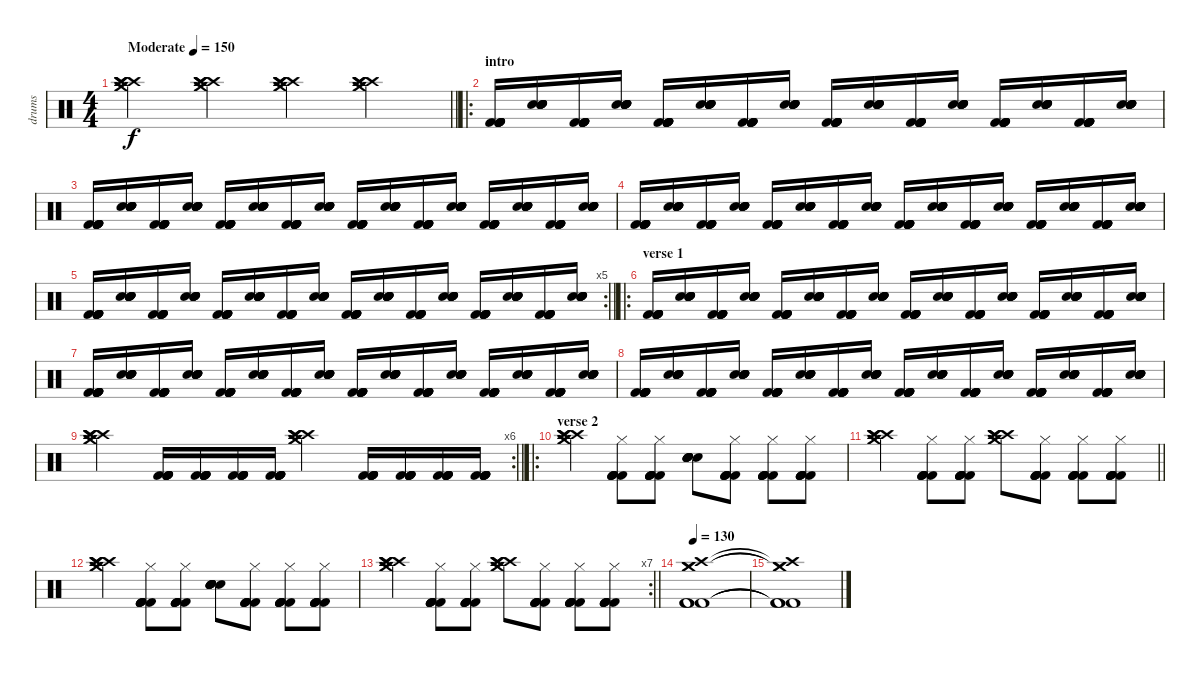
\track ("drums" "drums") {instrument percussion}
\staff {score}
\articulation defaults
\ts (4 4)
\tempo (150 "Moderate")
\clef neutral
\barLineRight lightlight
\ks c
("Crash medium (hit)" "Crash medium (hit)" "Crash high (hit)" "Crash high (hit)" "Crash high (hit)" "Crash high (hit)").4{dy f} ("Crash medium (hit)" "Crash medium (hit)" "Crash high (hit)" "Crash high (hit)" "Crash high (hit)" "Crash high (hit)").4 ("Crash medium (hit)" "Crash medium (hit)" "Crash high (hit)" "Crash high (hit)" "Crash high (hit)" "Crash high (hit)").4 ("Crash medium (hit)" "Crash medium (hit)" "Crash high (hit)" "Crash high (hit)" "Crash high (hit)" "Crash high (hit)").4 |
\ro
\section ("" "intro")
("Kick (hit) 2" "Kick (hit) 2" "Kick (hit) 2" "Kick (hit) 2" "Kick (hit) 2" "Kick (hit) 2").16 ("Snare (hit) 2" "Snare (hit) 2" "Snare (hit) 2" "Snare (hit) 2" "Snare (hit) 2" "Snare (hit) 2").16 ("Kick (hit) 2" "Kick (hit) 2" "Kick (hit) 2" "Kick (hit) 2" "Kick (hit) 2" "Kick (hit) 2").16 ("Snare (hit) 2" "Snare (hit) 2" "Snare (hit) 2" "Snare (hit) 2" "Snare (hit) 2" "Snare (hit) 2").16 ("Kick (hit) 2" "Kick (hit) 2" "Kick (hit) 2" "Kick (hit) 2" "Kick (hit) 2" "Kick (hit) 2").16 ("Snare (hit) 2" "Snare (hit) 2" "Snare (hit) 2" "Snare (hit) 2" "Snare (hit) 2" "Snare (hit) 2").16 ("Kick (hit) 2" "Kick (hit) 2" "Kick (hit) 2" "Kick (hit) 2" "Kick (hit) 2" "Kick (hit) 2").16 ("Snare (hit) 2" "Snare (hit) 2" "Snare (hit) 2" "Snare (hit) 2" "Snare (hit) 2" "Snare (hit) 2").16 ("Kick (hit) 2" "Kick (hit) 2" "Kick (hit) 2" "Kick (hit) 2" "Kick (hit) 2" "Kick (hit) 2").16 ("Snare (hit) 2" "Snare (hit) 2" "Snare (hit) 2" "Snare (hit) 2" "Snare (hit) 2" "Snare (hit) 2").16 ("Kick (hit) 2" "Kick (hit) 2" "Kick (hit) 2" "Kick (hit) 2" "Kick (hit) 2" "Kick (hit) 2").16 ("Snare (hit) 2" "Snare (hit) 2" "Snare (hit) 2" "Snare (hit) 2" "Snare (hit) 2" "Snare (hit) 2").16 ("Kick (hit) 2" "Kick (hit) 2" "Kick (hit) 2" "Kick (hit) 2" "Kick (hit) 2" "Kick (hit) 2").16 ("Snare (hit) 2" "Snare (hit) 2" "Snare (hit) 2" "Snare (hit) 2" "Snare (hit) 2" "Snare (hit) 2").16 ("Kick (hit) 2" "Kick (hit) 2" "Kick (hit) 2" "Kick (hit) 2" "Kick (hit) 2" "Kick (hit) 2").16 ("Snare (hit) 2" "Snare (hit) 2" "Snare (hit) 2" "Snare (hit) 2" "Snare (hit) 2" "Snare (hit) 2").16 |
("Kick (hit) 2" "Kick (hit) 2" "Kick (hit) 2" "Kick (hit) 2" "Kick (hit) 2" "Kick (hit) 2").16 ("Snare (hit) 2" "Snare (hit) 2" "Snare (hit) 2" "Snare (hit) 2" "Snare (hit) 2" "Snare (hit) 2").16 ("Kick (hit) 2" "Kick (hit) 2" "Kick (hit) 2" "Kick (hit) 2" "Kick (hit) 2" "Kick (hit) 2").16 ("Snare (hit) 2" "Snare (hit) 2" "Snare (hit) 2" "Snare (hit) 2" "Snare (hit) 2" "Snare (hit) 2").16 ("Kick (hit) 2" "Kick (hit) 2" "Kick (hit) 2" "Kick (hit) 2" "Kick (hit) 2" "Kick (hit) 2").16 ("Snare (hit) 2" "Snare (hit) 2" "Snare (hit) 2" "Snare (hit) 2" "Snare (hit) 2" "Snare (hit) 2").16 ("Kick (hit) 2" "Kick (hit) 2" "Kick (hit) 2" "Kick (hit) 2" "Kick (hit) 2" "Kick (hit) 2").16 ("Snare (hit) 2" "Snare (hit) 2" "Snare (hit) 2" "Snare (hit) 2" "Snare (hit) 2" "Snare (hit) 2").16 ("Kick (hit) 2" "Kick (hit) 2" "Kick (hit) 2" "Kick (hit) 2" "Kick (hit) 2" "Kick (hit) 2").16 ("Snare (hit) 2" "Snare (hit) 2" "Snare (hit) 2" "Snare (hit) 2" "Snare (hit) 2" "Snare (hit) 2").16 ("Kick (hit) 2" "Kick (hit) 2" "Kick (hit) 2" "Kick (hit) 2" "Kick (hit) 2" "Kick (hit) 2").16 ("Snare (hit) 2" "Snare (hit) 2" "Snare (hit) 2" "Snare (hit) 2" "Snare (hit) 2" "Snare (hit) 2").16 ("Kick (hit) 2" "Kick (hit) 2" "Kick (hit) 2" "Kick (hit) 2" "Kick (hit) 2" "Kick (hit) 2").16 ("Snare (hit) 2" "Snare (hit) 2" "Snare (hit) 2" "Snare (hit) 2" "Snare (hit) 2" "Snare (hit) 2").16 ("Kick (hit) 2" "Kick (hit) 2" "Kick (hit) 2" "Kick (hit) 2" "Kick (hit) 2" "Kick (hit) 2").16 ("Snare (hit) 2" "Snare (hit) 2" "Snare (hit) 2" "Snare (hit) 2" "Snare (hit) 2" "Snare (hit) 2").16 |
("Kick (hit) 2" "Kick (hit) 2" "Kick (hit) 2" "Kick (hit) 2" "Kick (hit) 2" "Kick (hit) 2").16 ("Snare (hit) 2" "Snare (hit) 2" "Snare (hit) 2" "Snare (hit) 2" "Snare (hit) 2" "Snare (hit) 2").16 ("Kick (hit) 2" "Kick (hit) 2" "Kick (hit) 2" "Kick (hit) 2" "Kick (hit) 2" "Kick (hit) 2").16 ("Snare (hit) 2" "Snare (hit) 2" "Snare (hit) 2" "Snare (hit) 2" "Snare (hit) 2" "Snare (hit) 2").16 ("Kick (hit) 2" "Kick (hit) 2" "Kick (hit) 2" "Kick (hit) 2" "Kick (hit) 2" "Kick (hit) 2").16 ("Snare (hit) 2" "Snare (hit) 2" "Snare (hit) 2" "Snare (hit) 2" "Snare (hit) 2" "Snare (hit) 2").16 ("Kick (hit) 2" "Kick (hit) 2" "Kick (hit) 2" "Kick (hit) 2" "Kick (hit) 2" "Kick (hit) 2").16 ("Snare (hit) 2" "Snare (hit) 2" "Snare (hit) 2" "Snare (hit) 2" "Snare (hit) 2" "Snare (hit) 2").16 ("Kick (hit) 2" "Kick (hit) 2" "Kick (hit) 2" "Kick (hit) 2" "Kick (hit) 2" "Kick (hit) 2").16 ("Snare (hit) 2" "Snare (hit) 2" "Snare (hit) 2" "Snare (hit) 2" "Snare (hit) 2" "Snare (hit) 2").16 ("Kick (hit) 2" "Kick (hit) 2" "Kick (hit) 2" "Kick (hit) 2" "Kick (hit) 2" "Kick (hit) 2").16 ("Snare (hit) 2" "Snare (hit) 2" "Snare (hit) 2" "Snare (hit) 2" "Snare (hit) 2" "Snare (hit) 2").16 ("Kick (hit) 2" "Kick (hit) 2" "Kick (hit) 2" "Kick (hit) 2" "Kick (hit) 2" "Kick (hit) 2").16 ("Snare (hit) 2" "Snare (hit) 2" "Snare (hit) 2" "Snare (hit) 2" "Snare (hit) 2" "Snare (hit) 2").16 ("Kick (hit) 2" "Kick (hit) 2" "Kick (hit) 2" "Kick (hit) 2" "Kick (hit) 2" "Kick (hit) 2").16 ("Snare (hit) 2" "Snare (hit) 2" "Snare (hit) 2" "Snare (hit) 2" "Snare (hit) 2" "Snare (hit) 2").16 |
\rc 5
\barLineRight lightlight
("Kick (hit) 2" "Kick (hit) 2" "Kick (hit) 2" "Kick (hit) 2" "Kick (hit) 2" "Kick (hit) 2").16 ("Snare (hit) 2" "Snare (hit) 2" "Snare (hit) 2" "Snare (hit) 2" "Snare (hit) 2" "Snare (hit) 2").16 ("Kick (hit) 2" "Kick (hit) 2" "Kick (hit) 2" "Kick (hit) 2" "Kick (hit) 2" "Kick (hit) 2").16 ("Snare (hit) 2" "Snare (hit) 2" "Snare (hit) 2" "Snare (hit) 2" "Snare (hit) 2" "Snare (hit) 2").16 ("Kick (hit) 2" "Kick (hit) 2" "Kick (hit) 2" "Kick (hit) 2" "Kick (hit) 2" "Kick (hit) 2").16 ("Snare (hit) 2" "Snare (hit) 2" "Snare (hit) 2" "Snare (hit) 2" "Snare (hit) 2" "Snare (hit) 2").16 ("Kick (hit) 2" "Kick (hit) 2" "Kick (hit) 2" "Kick (hit) 2" "Kick (hit) 2" "Kick (hit) 2").16 ("Snare (hit) 2" "Snare (hit) 2" "Snare (hit) 2" "Snare (hit) 2" "Snare (hit) 2" "Snare (hit) 2").16 ("Kick (hit) 2" "Kick (hit) 2" "Kick (hit) 2" "Kick (hit) 2" "Kick (hit) 2" "Kick (hit) 2").16 ("Snare (hit) 2" "Snare (hit) 2" "Snare (hit) 2" "Snare (hit) 2" "Snare (hit) 2" "Snare (hit) 2").16 ("Kick (hit) 2" "Kick (hit) 2" "Kick (hit) 2" "Kick (hit) 2" "Kick (hit) 2" "Kick (hit) 2").16 ("Snare (hit) 2" "Snare (hit) 2" "Snare (hit) 2" "Snare (hit) 2" "Snare (hit) 2" "Snare (hit) 2").16 ("Kick (hit) 2" "Kick (hit) 2" "Kick (hit) 2" "Kick (hit) 2" "Kick (hit) 2" "Kick (hit) 2").16 ("Snare (hit) 2" "Snare (hit) 2" "Snare (hit) 2" "Snare (hit) 2" "Snare (hit) 2" "Snare (hit) 2").16 ("Kick (hit) 2" "Kick (hit) 2" "Kick (hit) 2" "Kick (hit) 2" "Kick (hit) 2" "Kick (hit) 2").16 ("Snare (hit) 2" "Snare (hit) 2" "Snare (hit) 2" "Snare (hit) 2" "Snare (hit) 2" "Snare (hit) 2").16 |
\ro
\section ("" "verse 1")
("Kick (hit) 2" "Kick (hit) 2" "Kick (hit) 2" "Kick (hit) 2" "Kick (hit) 2" "Kick (hit) 2").16 ("Snare (hit) 2" "Snare (hit) 2" "Snare (hit) 2" "Snare (hit) 2" "Snare (hit) 2" "Snare (hit) 2").16 ("Kick (hit) 2" "Kick (hit) 2" "Kick (hit) 2" "Kick (hit) 2" "Kick (hit) 2" "Kick (hit) 2").16 ("Snare (hit) 2" "Snare (hit) 2" "Snare (hit) 2" "Snare (hit) 2" "Snare (hit) 2" "Snare (hit) 2").16 ("Kick (hit) 2" "Kick (hit) 2" "Kick (hit) 2" "Kick (hit) 2" "Kick (hit) 2" "Kick (hit) 2").16 ("Snare (hit) 2" "Snare (hit) 2" "Snare (hit) 2" "Snare (hit) 2" "Snare (hit) 2" "Snare (hit) 2").16 ("Kick (hit) 2" "Kick (hit) 2" "Kick (hit) 2" "Kick (hit) 2" "Kick (hit) 2" "Kick (hit) 2").16 ("Snare (hit) 2" "Snare (hit) 2" "Snare (hit) 2" "Snare (hit) 2" "Snare (hit) 2" "Snare (hit) 2").16 ("Kick (hit) 2" "Kick (hit) 2" "Kick (hit) 2" "Kick (hit) 2" "Kick (hit) 2" "Kick (hit) 2").16 ("Snare (hit) 2" "Snare (hit) 2" "Snare (hit) 2" "Snare (hit) 2" "Snare (hit) 2" "Snare (hit) 2").16 ("Kick (hit) 2" "Kick (hit) 2" "Kick (hit) 2" "Kick (hit) 2" "Kick (hit) 2" "Kick (hit) 2").16 ("Snare (hit) 2" "Snare (hit) 2" "Snare (hit) 2" "Snare (hit) 2" "Snare (hit) 2" "Snare (hit) 2").16 ("Kick (hit) 2" "Kick (hit) 2" "Kick (hit) 2" "Kick (hit) 2" "Kick (hit) 2" "Kick (hit) 2").16 ("Snare (hit) 2" "Snare (hit) 2" "Snare (hit) 2" "Snare (hit) 2" "Snare (hit) 2" "Snare (hit) 2").16 ("Kick (hit) 2" "Kick (hit) 2" "Kick (hit) 2" "Kick (hit) 2" "Kick (hit) 2" "Kick (hit) 2").16 ("Snare (hit) 2" "Snare (hit) 2" "Snare (hit) 2" "Snare (hit) 2" "Snare (hit) 2" "Snare (hit) 2").16 |
("Kick (hit) 2" "Kick (hit) 2" "Kick (hit) 2" "Kick (hit) 2" "Kick (hit) 2" "Kick (hit) 2").16 ("Snare (hit) 2" "Snare (hit) 2" "Snare (hit) 2" "Snare (hit) 2" "Snare (hit) 2" "Snare (hit) 2").16 ("Kick (hit) 2" "Kick (hit) 2" "Kick (hit) 2" "Kick (hit) 2" "Kick (hit) 2" "Kick (hit) 2").16 ("Snare (hit) 2" "Snare (hit) 2" "Snare (hit) 2" "Snare (hit) 2" "Snare (hit) 2" "Snare (hit) 2").16 ("Kick (hit) 2" "Kick (hit) 2" "Kick (hit) 2" "Kick (hit) 2" "Kick (hit) 2" "Kick (hit) 2").16 ("Snare (hit) 2" "Snare (hit) 2" "Snare (hit) 2" "Snare (hit) 2" "Snare (hit) 2" "Snare (hit) 2").16 ("Kick (hit) 2" "Kick (hit) 2" "Kick (hit) 2" "Kick (hit) 2" "Kick (hit) 2" "Kick (hit) 2").16 ("Snare (hit) 2" "Snare (hit) 2" "Snare (hit) 2" "Snare (hit) 2" "Snare (hit) 2" "Snare (hit) 2").16 ("Kick (hit) 2" "Kick (hit) 2" "Kick (hit) 2" "Kick (hit) 2" "Kick (hit) 2" "Kick (hit) 2").16 ("Snare (hit) 2" "Snare (hit) 2" "Snare (hit) 2" "Snare (hit) 2" "Snare (hit) 2" "Snare (hit) 2").16 ("Kick (hit) 2" "Kick (hit) 2" "Kick (hit) 2" "Kick (hit) 2" "Kick (hit) 2" "Kick (hit) 2").16 ("Snare (hit) 2" "Snare (hit) 2" "Snare (hit) 2" "Snare (hit) 2" "Snare (hit) 2" "Snare (hit) 2").16 ("Kick (hit) 2" "Kick (hit) 2" "Kick (hit) 2" "Kick (hit) 2" "Kick (hit) 2" "Kick (hit) 2").16 ("Snare (hit) 2" "Snare (hit) 2" "Snare (hit) 2" "Snare (hit) 2" "Snare (hit) 2" "Snare (hit) 2").16 ("Kick (hit) 2" "Kick (hit) 2" "Kick (hit) 2" "Kick (hit) 2" "Kick (hit) 2" "Kick (hit) 2").16 ("Snare (hit) 2" "Snare (hit) 2" "Snare (hit) 2" "Snare (hit) 2" "Snare (hit) 2" "Snare (hit) 2").16 |
("Kick (hit) 2" "Kick (hit) 2" "Kick (hit) 2" "Kick (hit) 2" "Kick (hit) 2" "Kick (hit) 2").16 ("Snare (hit) 2" "Snare (hit) 2" "Snare (hit) 2" "Snare (hit) 2" "Snare (hit) 2" "Snare (hit) 2").16 ("Kick (hit) 2" "Kick (hit) 2" "Kick (hit) 2" "Kick (hit) 2" "Kick (hit) 2" "Kick (hit) 2").16 ("Snare (hit) 2" "Snare (hit) 2" "Snare (hit) 2" "Snare (hit) 2" "Snare (hit) 2" "Snare (hit) 2").16 ("Kick (hit) 2" "Kick (hit) 2" "Kick (hit) 2" "Kick (hit) 2" "Kick (hit) 2" "Kick (hit) 2").16 ("Snare (hit) 2" "Snare (hit) 2" "Snare (hit) 2" "Snare (hit) 2" "Snare (hit) 2" "Snare (hit) 2").16 ("Kick (hit) 2" "Kick (hit) 2" "Kick (hit) 2" "Kick (hit) 2" "Kick (hit) 2" "Kick (hit) 2").16 ("Snare (hit) 2" "Snare (hit) 2" "Snare (hit) 2" "Snare (hit) 2" "Snare (hit) 2" "Snare (hit) 2").16 ("Kick (hit) 2" "Kick (hit) 2" "Kick (hit) 2" "Kick (hit) 2" "Kick (hit) 2" "Kick (hit) 2").16 ("Snare (hit) 2" "Snare (hit) 2" "Snare (hit) 2" "Snare (hit) 2" "Snare (hit) 2" "Snare (hit) 2").16 ("Kick (hit) 2" "Kick (hit) 2" "Kick (hit) 2" "Kick (hit) 2" "Kick (hit) 2" "Kick (hit) 2").16 ("Snare (hit) 2" "Snare (hit) 2" "Snare (hit) 2" "Snare (hit) 2" "Snare (hit) 2" "Snare (hit) 2").16 ("Kick (hit) 2" "Kick (hit) 2" "Kick (hit) 2" "Kick (hit) 2" "Kick (hit) 2" "Kick (hit) 2").16 ("Snare (hit) 2" "Snare (hit) 2" "Snare (hit) 2" "Snare (hit) 2" "Snare (hit) 2" "Snare (hit) 2").16 ("Kick (hit) 2" "Kick (hit) 2" "Kick (hit) 2" "Kick (hit) 2" "Kick (hit) 2" "Kick (hit) 2").16 ("Snare (hit) 2" "Snare (hit) 2" "Snare (hit) 2" "Snare (hit) 2" "Snare (hit) 2" "Snare (hit) 2").16 |
\rc 6
\barLineRight lightlight
("Crash medium (hit)" "Crash medium (hit)" "Crash high (hit)" "Crash high (hit)" "Crash high (hit)" "Crash high (hit)").4 ("Kick (hit) 2" "Kick (hit) 2" "Kick (hit) 2" "Kick (hit) 2" "Kick (hit) 2" "Kick (hit) 2").16 ("Kick (hit) 2" "Kick (hit) 2" "Kick (hit) 2" "Kick (hit) 2" "Kick (hit) 2" "Kick (hit) 2").16 ("Kick (hit) 2" "Kick (hit) 2" "Kick (hit) 2" "Kick (hit) 2" "Kick (hit) 2" "Kick (hit) 2").16 ("Kick (hit) 2" "Kick (hit) 2" "Kick (hit) 2" "Kick (hit) 2" "Kick (hit) 2" "Kick (hit) 2").16 ("Crash medium (hit)" "Crash medium (hit)" "Crash high (hit)" "Crash high (hit)" "Crash high (hit)" "Crash high (hit)").4 ("Kick (hit) 2" "Kick (hit) 2" "Kick (hit) 2" "Kick (hit) 2" "Kick (hit) 2" "Kick (hit) 2").16 ("Kick (hit) 2" "Kick (hit) 2" "Kick (hit) 2" "Kick (hit) 2" "Kick (hit) 2" "Kick (hit) 2").16 ("Kick (hit) 2" "Kick (hit) 2" "Kick (hit) 2" "Kick (hit) 2" "Kick (hit) 2" "Kick (hit) 2").16 ("Kick (hit) 2" "Kick (hit) 2" "Kick (hit) 2" "Kick (hit) 2" "Kick (hit) 2" "Kick (hit) 2").16 |
\ro
\section ("" "verse 2")
("Crash medium (hit)" "Crash medium (hit)" "Crash high (hit)" "Crash high (hit)" "Crash high (hit)" "Crash high (hit)").4 ("Kick (hit) 2" "Kick (hit) 2" "Kick (hit) 2" "Hi-Hat (closed)" "Kick (hit) 2" "Kick (hit) 2").8 ("Kick (hit) 2" "Kick (hit) 2" "Kick (hit) 2" "Hi-Hat (closed)" "Kick (hit) 2" "Kick (hit) 2").8 ("Snare (hit) 2" "Snare (hit) 2" "Snare (hit) 2" "Electric Snare (hit)" "Electric Snare (hit)" "Electric Snare (hit)").8 ("Kick (hit) 2" "Kick (hit) 2" "Kick (hit) 2" "Hi-Hat (closed)" "Kick (hit) 2" "Kick (hit) 2").8 ("Kick (hit) 2" "Kick (hit) 2" "Kick (hit) 2" "Hi-Hat (closed)" "Kick (hit) 2" "Kick (hit) 2").8 ("Kick (hit) 2" "Kick (hit) 2" "Kick (hit) 2" "Hi-Hat (closed)" "Kick (hit) 2" "Kick (hit) 2").8 |
\barLineRight lightlight
("Crash medium (hit)" "Crash medium (hit)" "Crash high (hit)" "Crash high (hit)" "Crash high (hit)" "Crash high (hit)").4 ("Kick (hit) 2" "Kick (hit) 2" "Kick (hit) 2" "Hi-Hat (closed)" "Kick (hit) 2" "Kick (hit) 2").8 ("Kick (hit) 2" "Kick (hit) 2" "Kick (hit) 2" "Hi-Hat (closed)" "Kick (hit) 2" "Kick (hit) 2").8 ("Crash medium (hit)" "Crash medium (hit)" "Crash high (hit)" "Crash high (hit)" "Crash high (hit)" "Crash high (hit)").8 ("Kick (hit) 2" "Kick (hit) 2" "Kick (hit) 2" "Hi-Hat (closed)" "Kick (hit) 2" "Kick (hit) 2").8 ("Kick (hit) 2" "Kick (hit) 2" "Kick (hit) 2" "Hi-Hat (closed)" "Kick (hit) 2" "Kick (hit) 2").8 ("Kick (hit) 2" "Kick (hit) 2" "Kick (hit) 2" "Hi-Hat (closed)" "Kick (hit) 2" "Kick (hit) 2").8 |
("Crash medium (hit)" "Crash medium (hit)" "Crash high (hit)" "Crash high (hit)" "Crash high (hit)" "Crash high (hit)").4 ("Kick (hit) 2" "Kick (hit) 2" "Kick (hit) 2" "Hi-Hat (closed)" "Kick (hit) 2" "Kick (hit) 2").8 ("Kick (hit) 2" "Kick (hit) 2" "Kick (hit) 2" "Hi-Hat (closed)" "Kick (hit) 2" "Kick (hit) 2").8 ("Snare (hit) 2" "Snare (hit) 2" "Snare (hit) 2" "Electric Snare (hit)" "Electric Snare (hit)" "Electric Snare (hit)").8 ("Kick (hit) 2" "Kick (hit) 2" "Kick (hit) 2" "Hi-Hat (closed)" "Kick (hit) 2" "Kick (hit) 2").8 ("Kick (hit) 2" "Kick (hit) 2" "Kick (hit) 2" "Hi-Hat (closed)" "Kick (hit) 2" "Kick (hit) 2").8 ("Kick (hit) 2" "Kick (hit) 2" "Kick (hit) 2" "Hi-Hat (closed)" "Kick (hit) 2" "Kick (hit) 2").8 |
\rc 7
\barLineRight lightlight
("Crash medium (hit)" "Crash medium (hit)" "Crash high (hit)" "Crash high (hit)" "Crash high (hit)" "Crash high (hit)").4 ("Kick (hit) 2" "Kick (hit) 2" "Kick (hit) 2" "Hi-Hat (closed)" "Kick (hit) 2" "Kick (hit) 2").8 ("Kick (hit) 2" "Kick (hit) 2" "Kick (hit) 2" "Hi-Hat (closed)" "Kick (hit) 2" "Kick (hit) 2").8 ("Crash medium (hit)" "Crash medium (hit)" "Crash high (hit)" "Crash high (hit)" "Crash high (hit)" "Crash high (hit)").8 ("Kick (hit) 2" "Kick (hit) 2" "Kick (hit) 2" "Hi-Hat (closed)" "Kick (hit) 2" "Kick (hit) 2").8 ("Kick (hit) 2" "Kick (hit) 2" "Kick (hit) 2" "Hi-Hat (closed)" "Kick (hit) 2" "Kick (hit) 2").8 ("Kick (hit) 2" "Kick (hit) 2" "Kick (hit) 2" "Hi-Hat (closed)" "Kick (hit) 2" "Kick (hit) 2").8 |
\tempo 130
("Crash medium (hit)" "Crash medium (hit)" "Crash high (hit)" "Kick (hit) 2" "Kick (hit) 2" "Kick (hit) 2").1 |
("Crash medium (hit)"{t} "Crash medium (hit)"{t} "Crash high (hit)"{t} "Kick (hit) 2"{t} "Kick (hit) 2"{t} "Kick (hit) 2"{t}).1
